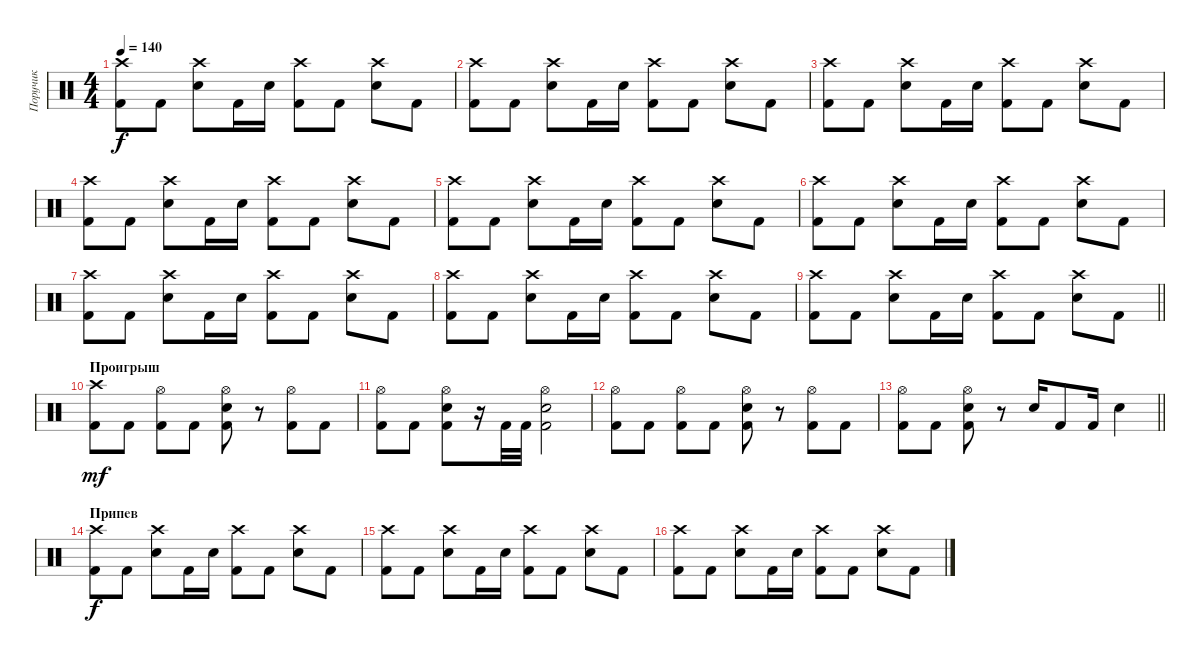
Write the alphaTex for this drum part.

\track ("Поручик" "Поручик") {instrument percussion}
\staff {score}
\articulation defaults
\ts (4 4)
\tempo 140
\clef neutral
\ks c
("Crash high (hit)" "Kick (hit) 2").8{dy f} "Kick (hit) 2".8 ("Crash high (hit)" "Electric Snare (hit)").8 "Kick (hit) 2".16 "Electric Snare (hit)".16 ("Crash high (hit)" "Kick (hit) 2").8 "Kick (hit) 2".8 ("Crash high (hit)" "Electric Snare (hit)").8 "Kick (hit) 2".8 |
("Crash high (hit)" "Kick (hit) 2").8 "Kick (hit) 2".8 ("Crash high (hit)" "Electric Snare (hit)").8 "Kick (hit) 2".16 "Electric Snare (hit)".16 ("Crash high (hit)" "Kick (hit) 2").8 "Kick (hit) 2".8 ("Crash high (hit)" "Electric Snare (hit)").8 "Kick (hit) 2".8 |
("Crash high (hit)" "Kick (hit) 2").8 "Kick (hit) 2".8 ("Crash high (hit)" "Electric Snare (hit)").8 "Kick (hit) 2".16 "Electric Snare (hit)".16 ("Crash high (hit)" "Kick (hit) 2").8 "Kick (hit) 2".8 ("Crash high (hit)" "Electric Snare (hit)").8 "Kick (hit) 2".8 |
("Crash high (hit)" "Kick (hit) 2").8 "Kick (hit) 2".8 ("Crash high (hit)" "Electric Snare (hit)").8 "Kick (hit) 2".16 "Electric Snare (hit)".16 ("Crash high (hit)" "Kick (hit) 2").8 "Kick (hit) 2".8 ("Crash high (hit)" "Electric Snare (hit)").8 "Kick (hit) 2".8 |
("Crash high (hit)" "Kick (hit) 2").8 "Kick (hit) 2".8 ("Crash high (hit)" "Electric Snare (hit)").8 "Kick (hit) 2".16 "Electric Snare (hit)".16 ("Crash high (hit)" "Kick (hit) 2").8 "Kick (hit) 2".8 ("Crash high (hit)" "Electric Snare (hit)").8 "Kick (hit) 2".8 |
("Crash high (hit)" "Kick (hit) 2").8 "Kick (hit) 2".8 ("Crash high (hit)" "Electric Snare (hit)").8 "Kick (hit) 2".16 "Electric Snare (hit)".16 ("Crash high (hit)" "Kick (hit) 2").8 "Kick (hit) 2".8 ("Crash high (hit)" "Electric Snare (hit)").8 "Kick (hit) 2".8 |
("Crash high (hit)" "Kick (hit) 2").8 "Kick (hit) 2".8 ("Crash high (hit)" "Electric Snare (hit)").8 "Kick (hit) 2".16 "Electric Snare (hit)".16 ("Crash high (hit)" "Kick (hit) 2").8 "Kick (hit) 2".8 ("Crash high (hit)" "Electric Snare (hit)").8 "Kick (hit) 2".8 |
("Crash high (hit)" "Kick (hit) 2").8 "Kick (hit) 2".8 ("Crash high (hit)" "Electric Snare (hit)").8 "Kick (hit) 2".16 "Electric Snare (hit)".16 ("Crash high (hit)" "Kick (hit) 2").8 "Kick (hit) 2".8 ("Crash high (hit)" "Electric Snare (hit)").8 "Kick (hit) 2".8 |
\barLineRight lightlight
("Crash high (hit)" "Kick (hit) 2").8 "Kick (hit) 2".8 ("Crash high (hit)" "Electric Snare (hit)").8 "Kick (hit) 2".16 "Electric Snare (hit)".16 ("Crash high (hit)" "Kick (hit) 2").8 "Kick (hit) 2".8 ("Crash high (hit)" "Electric Snare (hit)").8 "Kick (hit) 2".8 |
\section ("" "Проигрыш")
("Crash high (hit)" "Kick (hit) 2").8{dy mf} "Kick (hit) 2".8 ("Hi-Hat (open)" "Kick (hit) 2").8 "Kick (hit) 2".8 ("Hi-Hat (open)" "Electric Snare (hit)" "Kick (hit) 2").8 r.8 ("Hi-Hat (open)" "Kick (hit) 2").8 "Kick (hit) 2".8 |
("Hi-Hat (open)" "Kick (hit) 2").8 "Kick (hit) 2".8 ("Hi-Hat (open)" "Electric Snare (hit)" "Kick (hit) 2").8 r.16 "Kick (hit) 2".32 "Kick (hit) 2".32 ("Hi-Hat (open)" "Electric Snare (hit)" "Kick (hit) 2").2 |
("Hi-Hat (open)" "Kick (hit) 2").8 "Kick (hit) 2".8 ("Hi-Hat (open)" "Kick (hit) 2").8 "Kick (hit) 2".8 ("Hi-Hat (open)" "Electric Snare (hit)" "Kick (hit) 2").8 r.8 ("Hi-Hat (open)" "Kick (hit) 2").8 "Kick (hit) 2".8 |
\barLineRight lightlight
("Hi-Hat (open)" "Kick (hit) 2").8 "Kick (hit) 2".8 ("Hi-Hat (open)" "Electric Snare (hit)" "Kick (hit) 2").8 r.8 "Electric Snare (hit)".16 "Kick (hit) 2".8 "Kick (hit) 2".16 "Electric Snare (hit)".4 |
\section ("" "Припев")
("Crash high (hit)" "Kick (hit) 2").8{dy f} "Kick (hit) 2".8 ("Crash high (hit)" "Electric Snare (hit)").8 "Kick (hit) 2".16 "Electric Snare (hit)".16 ("Crash high (hit)" "Kick (hit) 2").8 "Kick (hit) 2".8 ("Crash high (hit)" "Electric Snare (hit)").8 "Kick (hit) 2".8 |
("Crash high (hit)" "Kick (hit) 2").8 "Kick (hit) 2".8 ("Crash high (hit)" "Electric Snare (hit)").8 "Kick (hit) 2".16 "Electric Snare (hit)".16 ("Crash high (hit)" "Kick (hit) 2").8 "Kick (hit) 2".8 ("Crash high (hit)" "Electric Snare (hit)").8 "Kick (hit) 2".8 |
("Crash high (hit)" "Kick (hit) 2").8 "Kick (hit) 2".8 ("Crash high (hit)" "Electric Snare (hit)").8 "Kick (hit) 2".16 "Electric Snare (hit)".16 ("Crash high (hit)" "Kick (hit) 2").8 "Kick (hit) 2".8 ("Crash high (hit)" "Electric Snare (hit)").8 "Kick (hit) 2".8
